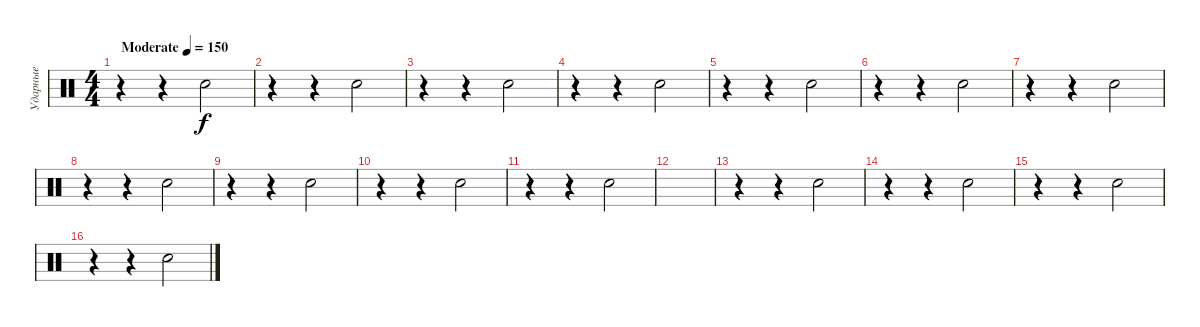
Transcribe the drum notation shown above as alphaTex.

\track ("Ударные" "Ударные") {instrument percussion}
\staff {score}
\articulation defaults
\ts (4 4)
\tempo (150 "Moderate")
\clef neutral
\ks c
r.4{dy f} r.4 "Hand Clap (hit)".2 |
r.4 r.4 "Hand Clap (hit)".2 |
r.4 r.4 "Hand Clap (hit)".2 |
r.4 r.4 "Hand Clap (hit)".2 |
r.4 r.4 "Hand Clap (hit)".2 |
r.4 r.4 "Hand Clap (hit)".2 |
r.4 r.4 "Hand Clap (hit)".2 |
r.4 r.4 "Hand Clap (hit)".2 |
r.4 r.4 "Hand Clap (hit)".2 |
r.4 r.4 "Hand Clap (hit)".2 |
r.4 r.4 "Hand Clap (hit)".2 |
|
r.4 r.4 "Hand Clap (hit)".2 |
r.4 r.4 "Hand Clap (hit)".2 |
r.4 r.4 "Hand Clap (hit)".2 |
r.4 r.4 "Hand Clap (hit)".2
